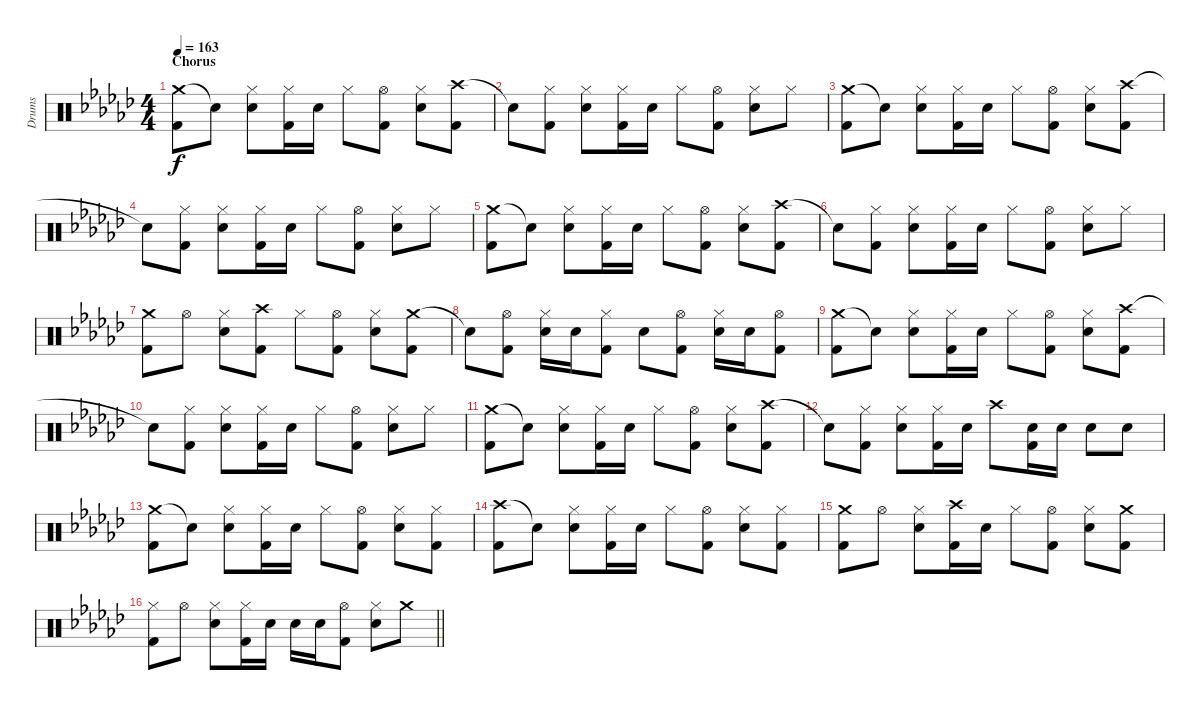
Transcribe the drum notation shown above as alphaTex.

\track ("Drums" "Drums") {mute instrument percussion}
\staff {score}
\articulation defaults
\ts (4 4)
\section ("" "Chorus")
\tempo 163
\clef neutral
\ks gb
("Crash medium (hit)" "Kick (hit) 2").8{dy f} "Snare (hit)"{t}.8 ("Hi-Hat (closed)" "Snare (hit) 2").8 ("Hi-Hat (closed)" "Kick (hit) 2").16 "Snare (hit) 2".16 "Hi-Hat (closed)".8 ("Hi-Hat (open)" "Kick (hit) 2").8 ("Hi-Hat (closed)" "Snare (hit) 2").8 ("Crash high (hit)" "Kick (hit) 2").8 |
"Snare (hit)"{t}.8 ("Hi-Hat (closed)" "Kick (hit) 2").8 ("Hi-Hat (closed)" "Snare (hit) 2").8 ("Hi-Hat (closed)" "Kick (hit) 2").16 "Snare (hit) 2".16 "Hi-Hat (closed)".8 ("Hi-Hat (open)" "Kick (hit) 2").8 ("Hi-Hat (closed)" "Snare (hit) 2").8 "Hi-Hat (closed)".8 |
("Crash medium (hit)" "Kick (hit) 2").8 "Snare (hit)"{t}.8 ("Hi-Hat (closed)" "Snare (hit) 2").8 ("Hi-Hat (closed)" "Kick (hit) 2").16 "Snare (hit) 2".16 "Hi-Hat (closed)".8 ("Hi-Hat (open)" "Kick (hit) 2").8 ("Hi-Hat (closed)" "Snare (hit) 2").8 ("Crash high (hit)" "Kick (hit) 2").8 |
"Snare (hit)"{t}.8 ("Hi-Hat (closed)" "Kick (hit) 2").8 ("Hi-Hat (closed)" "Snare (hit) 2").8 ("Hi-Hat (closed)" "Kick (hit) 2").16 "Snare (hit) 2".16 "Hi-Hat (closed)".8 ("Hi-Hat (open)" "Kick (hit) 2").8 ("Hi-Hat (closed)" "Snare (hit) 2").8 "Hi-Hat (closed)".8 |
("Crash medium (hit)" "Kick (hit) 2").8 "Snare (hit)"{t}.8 ("Hi-Hat (closed)" "Snare (hit) 2").8 ("Hi-Hat (closed)" "Kick (hit) 2").16 "Snare (hit) 2".16 "Hi-Hat (closed)".8 ("Hi-Hat (open)" "Kick (hit) 2").8 ("Hi-Hat (closed)" "Snare (hit) 2").8 ("Crash high (hit)" "Kick (hit) 2").8 |
"Snare (hit)"{t}.8 ("Hi-Hat (closed)" "Kick (hit) 2").8 ("Hi-Hat (closed)" "Snare (hit) 2").8 ("Hi-Hat (closed)" "Kick (hit) 2").16 "Snare (hit) 2".16 "Hi-Hat (closed)".8 ("Hi-Hat (open)" "Kick (hit) 2").8 ("Hi-Hat (closed)" "Snare (hit) 2").8 "Hi-Hat (closed)".8 |
("Crash medium (hit)" "Kick (hit) 2").8 "Hi-Hat (open)".8 ("Hi-Hat (closed)" "Snare (hit) 2").8 ("Crash high (hit)" "Kick (hit) 2").8 "Hi-Hat (closed)".8 ("Hi-Hat (open)" "Kick (hit) 2").8 ("Hi-Hat (closed)" "Snare (hit) 2").8 ("Crash medium (hit)" "Kick (hit) 2").8 |
"Snare (hit)"{t}.8 ("Hi-Hat (open)" "Kick (hit) 2").8 ("Hi-Hat (closed)" "Snare (hit) 2").16 "Snare (hit) 2".16 ("Hi-Hat (closed)" "Kick (hit) 2").8 "Snare (hit) 2".8 ("Hi-Hat (open)" "Kick (hit) 2").8 ("Hi-Hat (closed)" "Snare (hit) 2").16 "Snare (hit) 2".16 ("Hi-Hat (open)" "Kick (hit) 2").8 |
("Crash medium (hit)" "Kick (hit) 2").8 "Snare (hit)"{t}.8 ("Hi-Hat (closed)" "Snare (hit) 2").8 ("Hi-Hat (closed)" "Kick (hit) 2").16 "Snare (hit) 2".16 "Hi-Hat (closed)".8 ("Hi-Hat (open)" "Kick (hit) 2").8 ("Hi-Hat (closed)" "Snare (hit) 2").8 ("Crash high (hit)" "Kick (hit) 2").8 |
"Snare (hit)"{t}.8 ("Hi-Hat (closed)" "Kick (hit) 2").8 ("Hi-Hat (closed)" "Snare (hit) 2").8 ("Hi-Hat (closed)" "Kick (hit) 2").16 "Snare (hit) 2".16 "Hi-Hat (closed)".8 ("Hi-Hat (open)" "Kick (hit) 2").8 ("Hi-Hat (closed)" "Snare (hit) 2").8 "Hi-Hat (closed)".8 |
("Crash medium (hit)" "Kick (hit) 2").8 "Snare (hit)"{t}.8 ("Hi-Hat (closed)" "Snare (hit) 2").8 ("Hi-Hat (closed)" "Kick (hit) 2").16 "Snare (hit) 2".16 "Hi-Hat (closed)".8 ("Hi-Hat (open)" "Kick (hit) 2").8 ("Hi-Hat (closed)" "Snare (hit) 2").8 ("Crash high (hit)" "Kick (hit) 2").8 |
"Snare (hit)"{t}.8 ("Hi-Hat (closed)" "Kick (hit) 2").8 ("Hi-Hat (closed)" "Snare (hit) 2").8 ("Hi-Hat (closed)" "Kick (hit) 2").16 "Snare (hit) 2".16 "Crash high (hit)".8 ("Snare (hit) 2" "Kick (hit) 2").16 "Snare (hit) 2".16 "Snare (hit) 2".8 "Snare (hit) 2".8 |
("Crash medium (hit)" "Kick (hit) 2").8 "Snare (hit)"{t}.8 ("Hi-Hat (closed)" "Snare (hit) 2").8 ("Hi-Hat (closed)" "Kick (hit) 2").16 "Snare (hit) 2".16 "Hi-Hat (closed)".8 ("Hi-Hat (open)" "Kick (hit) 2").8 ("Hi-Hat (closed)" "Snare (hit) 2").8 ("Hi-Hat (closed)" "Kick (hit) 2").8 |
("Crash high (hit)" "Kick (hit) 2").8 "Snare (hit)"{t}.8 ("Hi-Hat (closed)" "Snare (hit) 2").8 ("Hi-Hat (closed)" "Kick (hit) 2").16 "Snare (hit) 2".16 "Hi-Hat (closed)".8 ("Hi-Hat (open)" "Kick (hit) 2").8 ("Hi-Hat (closed)" "Snare (hit) 2").8 ("Hi-Hat (closed)" "Kick (hit) 2").8 |
("Crash medium (hit)" "Kick (hit) 2").8 "Hi-Hat (open)".8 ("Hi-Hat (closed)" "Snare (hit) 2").8 ("Crash high (hit)" "Kick (hit) 2").16 "Snare (hit) 2".16 "Hi-Hat (closed)".8 ("Hi-Hat (open)" "Kick (hit) 2").8 ("Hi-Hat (closed)" "Snare (hit) 2").8 ("Crash medium (hit)" "Kick (hit) 2").8 |
\barLineRight lightlight
("Hi-Hat (closed)" "Kick (hit) 2").8 "Hi-Hat (open)".8 ("Hi-Hat (closed)" "Snare (hit) 2").8 ("Hi-Hat (closed)" "Kick (hit) 2").16 "Snare (hit) 2".16 "Snare (hit) 2".16 "Snare (hit) 2".16 ("Hi-Hat (open)" "Kick (hit) 2").8 ("Hi-Hat (closed)" "Snare (hit) 2").8 "Crash medium (hit)".8
